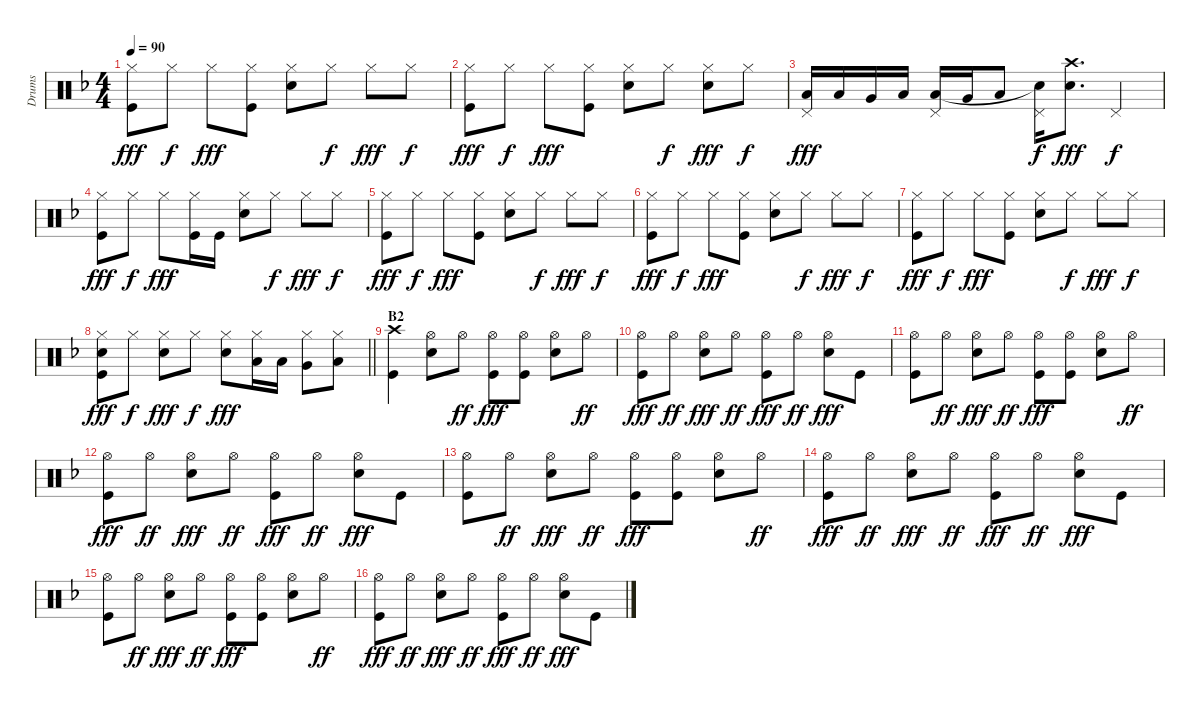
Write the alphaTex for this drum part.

\track ("Drums" "Drums") {instrument percussion}
\staff {score}
\articulation defaults
\ts (4 4)
\tempo 90
\clef neutral
\ks f
("Hi-Hat (closed)" "Kick (hit)").8{dy fff} "Hi-Hat (closed)".8{dy f} "Hi-Hat (closed)".8{dy fff} ("Hi-Hat (closed)" "Kick (hit)").8 ("Hi-Hat (closed)" "Snare (hit) 2").8 "Hi-Hat (closed)".8{dy f} "Hi-Hat (closed)".8{dy fff} "Hi-Hat (closed)".8{dy f} |
("Hi-Hat (closed)" "Kick (hit)").8{dy fff} "Hi-Hat (closed)".8{dy f} "Hi-Hat (closed)".8{dy fff} ("Hi-Hat (closed)" "Kick (hit)").8 ("Hi-Hat (closed)" "Snare (hit) 2").8 "Hi-Hat (closed)".8{dy f} ("Hi-Hat (closed)" "Snare (hit) 2").8{dy fff} "Hi-Hat (closed)".8{dy f} |
("Pedal Hi-Hat (hit)" "Low Tom (hit)").16{dy fff} "Low Tom (hit)".16 "Very Low Tom (hit)".16 "Low Floor Tom (hit)".16 ("Pedal Hi-Hat (hit)" "Low Tom (hit)").16 "Very Low Tom (hit)".16 "Low Floor Tom (hit)".8 ("Pedal Hi-Hat (hit)" "Snare (hit)"{t}).16{dy f} ("Crash high (hit)" "Snare (hit) 2").8{d dy fff} "Pedal Hi-Hat (hit)".4{dy f} |
("Hi-Hat (closed)" "Kick (hit)").8{dy fff} "Hi-Hat (closed)".8{dy f} "Hi-Hat (closed)".8{dy fff} ("Hi-Hat (closed)" "Kick (hit)").16 "Kick (hit)".16 ("Hi-Hat (closed)" "Snare (hit) 2").8 "Hi-Hat (closed)".8{dy f} "Hi-Hat (closed)".8{dy fff} "Hi-Hat (closed)".8{dy f} |
("Hi-Hat (closed)" "Kick (hit)").8{dy fff} "Hi-Hat (closed)".8{dy f} "Hi-Hat (closed)".8{dy fff} ("Hi-Hat (closed)" "Kick (hit)").8 ("Hi-Hat (closed)" "Snare (hit) 2").8 "Hi-Hat (closed)".8{dy f} "Hi-Hat (closed)".8{dy fff} "Hi-Hat (closed)".8{dy f} |
("Hi-Hat (closed)" "Kick (hit)").8{dy fff} "Hi-Hat (closed)".8{dy f} "Hi-Hat (closed)".8{dy fff} ("Hi-Hat (closed)" "Kick (hit)").8 ("Hi-Hat (closed)" "Snare (hit) 2").8 "Hi-Hat (closed)".8{dy f} "Hi-Hat (closed)".8{dy fff} "Hi-Hat (closed)".8{dy f} |
("Hi-Hat (closed)" "Kick (hit)").8{dy fff} "Hi-Hat (closed)".8{dy f} "Hi-Hat (closed)".8{dy fff} ("Hi-Hat (closed)" "Kick (hit)").8 ("Hi-Hat (closed)" "Snare (hit) 2").8 "Hi-Hat (closed)".8{dy f} "Hi-Hat (closed)".8{dy fff} "Hi-Hat (closed)".8{dy f} |
\barLineRight lightlight
("Hi-Hat (closed)" "Snare (hit) 2" "Kick (hit)").8{dy fff} "Hi-Hat (closed)".8{dy f} ("Hi-Hat (closed)" "Snare (hit) 2").8{dy fff} "Hi-Hat (closed)".8{dy f} ("Hi-Hat (closed)" "Snare (hit) 2").8{dy fff} ("Hi-Hat (closed)" "Low Tom (hit)").16 "Low Tom (hit)".16 ("Hi-Hat (closed)" "Very Low Tom (hit)").8 ("Hi-Hat (closed)" "Low Floor Tom (hit)").8 |
\section ("" "B2")
("Crash high (hit)" "Kick (hit)").4 ("Hi-Hat (open)" "Snare (hit) 2").8 "Hi-Hat (open)".8{dy ff} ("Hi-Hat (open)" "Kick (hit)").8{dy fff} ("Hi-Hat (open)" "Kick (hit)").8 ("Hi-Hat (open)" "Snare (hit) 2").8 "Hi-Hat (open)".8{dy ff} |
("Hi-Hat (open)" "Kick (hit)").8{dy fff} "Hi-Hat (open)".8{dy ff} ("Hi-Hat (open)" "Snare (hit) 2").8{dy fff} "Hi-Hat (open)".8{dy ff} ("Hi-Hat (open)" "Kick (hit)").8{dy fff} "Hi-Hat (open)".8{dy ff} ("Hi-Hat (open)" "Snare (hit) 2").8{dy fff} "Kick (hit)".8 |
("Hi-Hat (open)" "Kick (hit)").8 "Hi-Hat (open)".8{dy ff} ("Hi-Hat (open)" "Snare (hit) 2").8{dy fff} "Hi-Hat (open)".8{dy ff} ("Hi-Hat (open)" "Kick (hit)").8{dy fff} ("Hi-Hat (open)" "Kick (hit)").8 ("Hi-Hat (open)" "Snare (hit) 2").8 "Hi-Hat (open)".8{dy ff} |
("Hi-Hat (open)" "Kick (hit)").8{dy fff} "Hi-Hat (open)".8{dy ff} ("Hi-Hat (open)" "Snare (hit) 2").8{dy fff} "Hi-Hat (open)".8{dy ff} ("Hi-Hat (open)" "Kick (hit)").8{dy fff} "Hi-Hat (open)".8{dy ff} ("Hi-Hat (open)" "Snare (hit) 2").8{dy fff} "Kick (hit)".8 |
("Hi-Hat (open)" "Kick (hit)").8 "Hi-Hat (open)".8{dy ff} ("Hi-Hat (open)" "Snare (hit) 2").8{dy fff} "Hi-Hat (open)".8{dy ff} ("Hi-Hat (open)" "Kick (hit)").8{dy fff} ("Hi-Hat (open)" "Kick (hit)").8 ("Hi-Hat (open)" "Snare (hit) 2").8 "Hi-Hat (open)".8{dy ff} |
("Hi-Hat (open)" "Kick (hit)").8{dy fff} "Hi-Hat (open)".8{dy ff} ("Hi-Hat (open)" "Snare (hit) 2").8{dy fff} "Hi-Hat (open)".8{dy ff} ("Hi-Hat (open)" "Kick (hit)").8{dy fff} "Hi-Hat (open)".8{dy ff} ("Hi-Hat (open)" "Snare (hit) 2").8{dy fff} "Kick (hit)".8 |
("Hi-Hat (open)" "Kick (hit)").8 "Hi-Hat (open)".8{dy ff} ("Hi-Hat (open)" "Snare (hit) 2").8{dy fff} "Hi-Hat (open)".8{dy ff} ("Hi-Hat (open)" "Kick (hit)").8{dy fff} ("Hi-Hat (open)" "Kick (hit)").8 ("Hi-Hat (open)" "Snare (hit) 2").8 "Hi-Hat (open)".8{dy ff} |
("Hi-Hat (open)" "Kick (hit)").8{dy fff} "Hi-Hat (open)".8{dy ff} ("Hi-Hat (open)" "Snare (hit) 2").8{dy fff} "Hi-Hat (open)".8{dy ff} ("Hi-Hat (open)" "Kick (hit)").8{dy fff} "Hi-Hat (open)".8{dy ff} ("Hi-Hat (open)" "Snare (hit) 2").8{dy fff} "Kick (hit)".8
